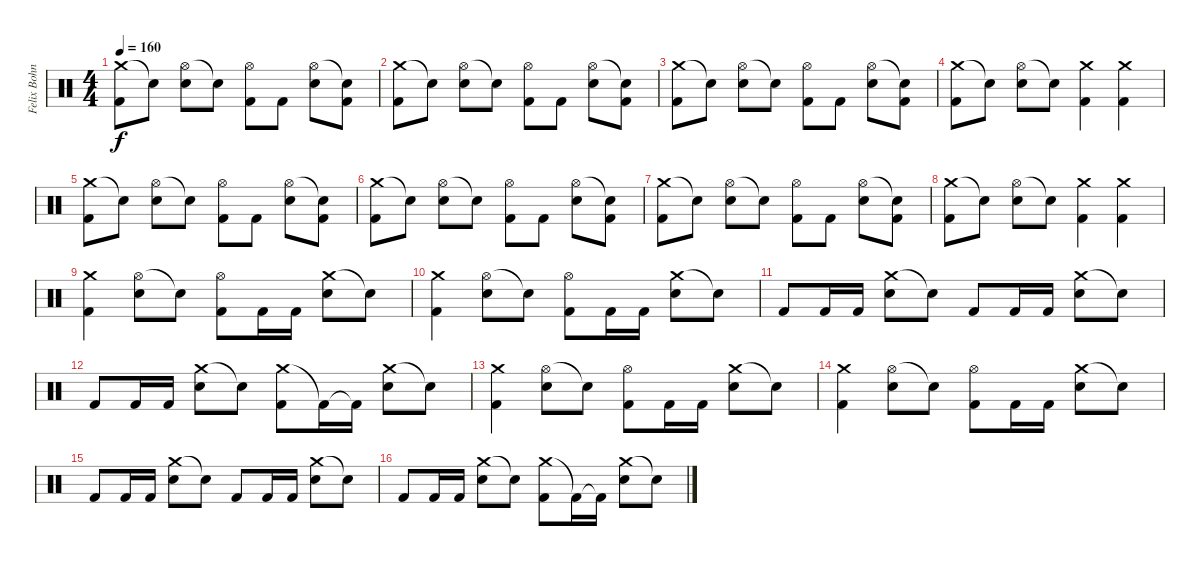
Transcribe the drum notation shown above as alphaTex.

\track ("Felix Bohnke" "Felix Bohn") {instrument percussion}
\staff {score}
\articulation defaults
\ts (4 4)
\tempo 160
\clef neutral
\ks c
("Crash medium (hit)" "Kick (hit) 2").8{dy f} "Snare (hit)"{t}.8 ("Hi-Hat (open)" "Electric Snare (hit)").8 "Snare (hit)"{t}.8 ("Hi-Hat (open)" "Kick (hit) 2").8 "Kick (hit) 2".8 ("Hi-Hat (open)" "Electric Snare (hit)").8 ("Snare (hit)"{t} "Kick (hit) 2").8 |
("Crash medium (hit)" "Kick (hit) 2").8 "Snare (hit)"{t}.8 ("Hi-Hat (open)" "Electric Snare (hit)").8 "Snare (hit)"{t}.8 ("Hi-Hat (open)" "Kick (hit) 2").8 "Kick (hit) 2".8 ("Hi-Hat (open)" "Electric Snare (hit)").8 ("Snare (hit)"{t} "Kick (hit) 2").8 |
("Crash medium (hit)" "Kick (hit) 2").8 "Snare (hit)"{t}.8 ("Hi-Hat (open)" "Electric Snare (hit)").8 "Snare (hit)"{t}.8 ("Hi-Hat (open)" "Kick (hit) 2").8 "Kick (hit) 2".8 ("Hi-Hat (open)" "Electric Snare (hit)").8 ("Snare (hit)"{t} "Kick (hit) 2").8 |
("Crash medium (hit)" "Kick (hit) 2").8 "Snare (hit)"{t}.8 ("Hi-Hat (open)" "Electric Snare (hit)").8 "Snare (hit)"{t}.8 ("Crash medium (hit)" "Kick (hit) 2").4 ("Crash medium (hit)" "Kick (hit) 2").4 |
("Crash medium (hit)" "Kick (hit) 2").8 "Snare (hit)"{t}.8 ("Hi-Hat (open)" "Electric Snare (hit)").8 "Snare (hit)"{t}.8 ("Hi-Hat (open)" "Kick (hit) 2").8 "Kick (hit) 2".8 ("Hi-Hat (open)" "Electric Snare (hit)").8 ("Snare (hit)"{t} "Kick (hit) 2").8 |
("Crash medium (hit)" "Kick (hit) 2").8 "Snare (hit)"{t}.8 ("Hi-Hat (open)" "Electric Snare (hit)").8 "Snare (hit)"{t}.8 ("Hi-Hat (open)" "Kick (hit) 2").8 "Kick (hit) 2".8 ("Hi-Hat (open)" "Electric Snare (hit)").8 ("Snare (hit)"{t} "Kick (hit) 2").8 |
("Crash medium (hit)" "Kick (hit) 2").8 "Snare (hit)"{t}.8 ("Hi-Hat (open)" "Electric Snare (hit)").8 "Snare (hit)"{t}.8 ("Hi-Hat (open)" "Kick (hit) 2").8 "Kick (hit) 2".8 ("Hi-Hat (open)" "Electric Snare (hit)").8 ("Snare (hit)"{t} "Kick (hit) 2").8 |
("Crash medium (hit)" "Kick (hit) 2").8 "Snare (hit)"{t}.8 ("Hi-Hat (open)" "Electric Snare (hit)").8 "Snare (hit)"{t}.8 ("Crash medium (hit)" "Kick (hit) 2").4 ("Crash medium (hit)" "Kick (hit) 2").4 |
("Crash medium (hit)" "Kick (hit) 2").4 ("Hi-Hat (open)" "Electric Snare (hit)").8 "Snare (hit)"{t}.8 ("Hi-Hat (open)" "Kick (hit) 2").8 "Kick (hit) 2".16 "Kick (hit) 2".16 ("Crash medium (hit)" "Electric Snare (hit)").8 "Snare (hit)"{t}.8 |
("Crash medium (hit)" "Kick (hit) 2").4 ("Hi-Hat (open)" "Electric Snare (hit)").8 "Snare (hit)"{t}.8 ("Hi-Hat (open)" "Kick (hit) 2").8 "Kick (hit) 2".16 "Kick (hit) 2".16 ("Crash medium (hit)" "Electric Snare (hit)").8 "Snare (hit)"{t}.8 |
"Kick (hit) 2".8 "Kick (hit) 2".16 "Kick (hit) 2".16 ("Crash medium (hit)" "Electric Snare (hit)").8 "Snare (hit)"{t}.8 "Kick (hit) 2".8 "Kick (hit) 2".16 "Kick (hit) 2".16 ("Crash medium (hit)" "Electric Snare (hit)").8 "Snare (hit)"{t}.8 |
"Kick (hit) 2".8 "Kick (hit) 2".16 "Kick (hit) 2".16 ("Crash medium (hit)" "Electric Snare (hit)").8 "Snare (hit)"{t}.8 ("Crash medium (hit)" "Kick (hit) 2").8 "Kick (hit) 2"{t}.16 "Kick (hit) 2"{t}.16 ("Crash medium (hit)" "Electric Snare (hit)").8 "Snare (hit)"{t}.8 |
("Crash medium (hit)" "Kick (hit) 2").4 ("Hi-Hat (open)" "Electric Snare (hit)").8 "Snare (hit)"{t}.8 ("Hi-Hat (open)" "Kick (hit) 2").8 "Kick (hit) 2".16 "Kick (hit) 2".16 ("Crash medium (hit)" "Electric Snare (hit)").8 "Snare (hit)"{t}.8 |
("Crash medium (hit)" "Kick (hit) 2").4 ("Hi-Hat (open)" "Electric Snare (hit)").8 "Snare (hit)"{t}.8 ("Hi-Hat (open)" "Kick (hit) 2").8 "Kick (hit) 2".16 "Kick (hit) 2".16 ("Crash medium (hit)" "Electric Snare (hit)").8 "Snare (hit)"{t}.8 |
"Kick (hit) 2".8 "Kick (hit) 2".16 "Kick (hit) 2".16 ("Crash medium (hit)" "Electric Snare (hit)").8 "Snare (hit)"{t}.8 "Kick (hit) 2".8 "Kick (hit) 2".16 "Kick (hit) 2".16 ("Crash medium (hit)" "Electric Snare (hit)").8 "Snare (hit)"{t}.8 |
"Kick (hit) 2".8 "Kick (hit) 2".16 "Kick (hit) 2".16 ("Crash medium (hit)" "Electric Snare (hit)").8 "Snare (hit)"{t}.8 ("Crash medium (hit)" "Kick (hit) 2").8 "Kick (hit) 2"{t}.16 "Kick (hit) 2"{t}.16 ("Crash medium (hit)" "Electric Snare (hit)").8 "Snare (hit)"{t}.8
